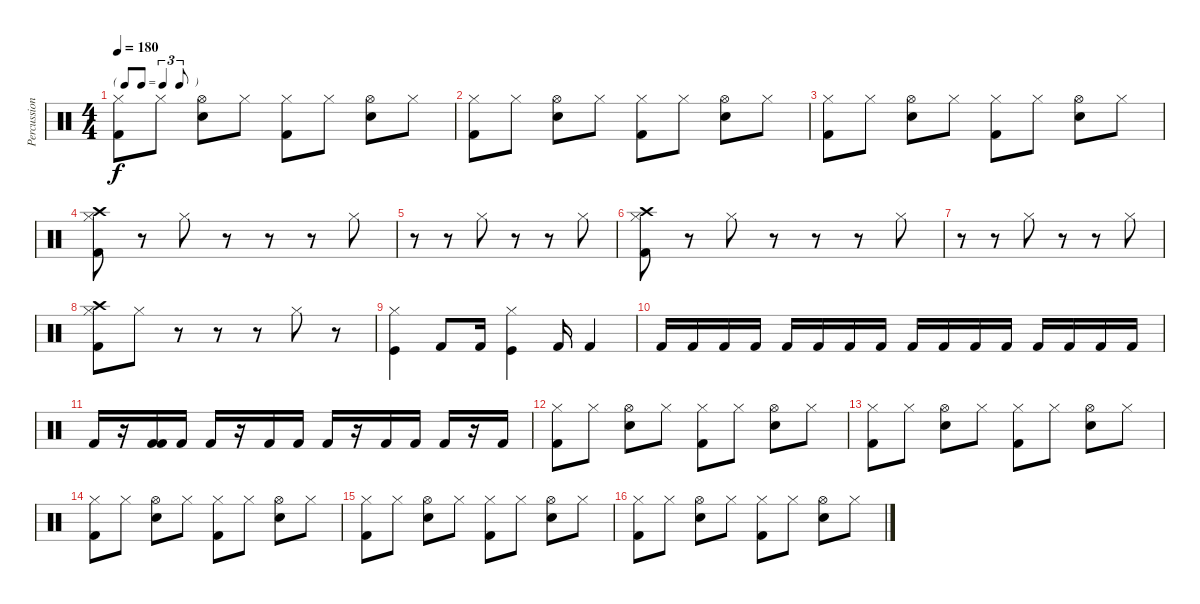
\track ("Percussions" "Percussion") {instrument percussion}
\staff {score}
\articulation defaults
\ts (4 4)
\tf triplet8th
\tempo 180
\clef neutral
\ks c
("Hi-Hat (closed)" "Kick (hit) 2").8{dy f} "Hi-Hat (closed)".8 ("Hi-Hat (open)" "Snare (hit) 2").8 "Hi-Hat (closed)".8 ("Hi-Hat (closed)" "Kick (hit) 2").8 "Hi-Hat (closed)".8 ("Hi-Hat (open)" "Snare (hit) 2").8 "Hi-Hat (closed)".8 |
("Hi-Hat (closed)" "Kick (hit) 2").8 "Hi-Hat (closed)".8 ("Hi-Hat (open)" "Snare (hit) 2").8 "Hi-Hat (closed)".8 ("Hi-Hat (closed)" "Kick (hit) 2").8 "Hi-Hat (closed)".8 ("Hi-Hat (open)" "Snare (hit) 2").8 "Hi-Hat (closed)".8 |
("Hi-Hat (closed)" "Kick (hit) 2").8 "Hi-Hat (closed)".8 ("Hi-Hat (open)" "Snare (hit) 2").8 "Hi-Hat (closed)".8 ("Hi-Hat (closed)" "Kick (hit) 2").8 "Hi-Hat (closed)".8 ("Hi-Hat (open)" "Snare (hit) 2").8 "Hi-Hat (closed)".8 |
("Crash high (hit)" "Kick (hit) 2" "Hi-Hat (closed)").8 r.8 "Hi-Hat (closed)".8 r.8 r.8 r.8 "Hi-Hat (closed)".8 |
r.8 r.8 "Hi-Hat (closed)".8 r.8 r.8 "Hi-Hat (closed)".8 |
("Crash high (hit)" "Kick (hit) 2" "Hi-Hat (closed)").8 r.8 "Hi-Hat (closed)".8 r.8 r.8 r.8 "Hi-Hat (closed)".8 |
r.8 r.8 "Hi-Hat (closed)".8 r.8 r.8 "Hi-Hat (closed)".8 |
("Crash high (hit)" "Kick (hit) 2" "Hi-Hat (closed)").8 "Hi-Hat (closed)".8 r.8 r.8 r.8 "Hi-Hat (closed)".8 r.8 |
("Hi-Hat (closed)" "Kick (hit)").4 "Kick (hit) 2".8 "Kick (hit) 2".16 ("Kick (hit)" "Hi-Hat (closed)").4 "Kick (hit) 2".16 "Kick (hit) 2".4 |
"Kick (hit) 2".16 "Kick (hit) 2".16 "Kick (hit) 2".16 "Kick (hit) 2".16 "Kick (hit) 2".16 "Kick (hit) 2".16 "Kick (hit) 2".16 "Kick (hit) 2".16 "Kick (hit) 2".16 "Kick (hit) 2".16 "Kick (hit) 2".16 "Kick (hit) 2".16 "Kick (hit) 2".16 "Kick (hit) 2".16 "Kick (hit) 2".16 "Kick (hit) 2".16 |
"Kick (hit) 2".16 r.16 ("Kick (hit) 2" "Kick (hit) 2").16 "Kick (hit) 2".16 "Kick (hit) 2".16 r.16 "Kick (hit) 2".16 "Kick (hit) 2".16 "Kick (hit) 2".16 r.16 "Kick (hit) 2".16 "Kick (hit) 2".16 "Kick (hit) 2".16 r.16 "Kick (hit) 2".16 |
("Hi-Hat (closed)" "Kick (hit) 2").8 "Hi-Hat (closed)".8 ("Hi-Hat (open)" "Snare (hit) 2").8 "Hi-Hat (closed)".8 ("Hi-Hat (closed)" "Kick (hit) 2").8 "Hi-Hat (closed)".8 ("Hi-Hat (open)" "Snare (hit) 2").8 "Hi-Hat (closed)".8 |
("Hi-Hat (closed)" "Kick (hit) 2").8 "Hi-Hat (closed)".8 ("Hi-Hat (open)" "Snare (hit) 2").8 "Hi-Hat (closed)".8 ("Hi-Hat (closed)" "Kick (hit) 2").8 "Hi-Hat (closed)".8 ("Hi-Hat (open)" "Snare (hit) 2").8 "Hi-Hat (closed)".8 |
("Hi-Hat (closed)" "Kick (hit) 2").8 "Hi-Hat (closed)".8 ("Hi-Hat (open)" "Snare (hit) 2").8 "Hi-Hat (closed)".8 ("Hi-Hat (closed)" "Kick (hit) 2").8 "Hi-Hat (closed)".8 ("Hi-Hat (open)" "Snare (hit) 2").8 "Hi-Hat (closed)".8 |
("Hi-Hat (closed)" "Kick (hit) 2").8 "Hi-Hat (closed)".8 ("Hi-Hat (open)" "Snare (hit) 2").8 "Hi-Hat (closed)".8 ("Hi-Hat (closed)" "Kick (hit) 2").8 "Hi-Hat (closed)".8 ("Hi-Hat (open)" "Snare (hit) 2").8 "Hi-Hat (closed)".8 |
("Hi-Hat (closed)" "Kick (hit) 2").8 "Hi-Hat (closed)".8 ("Hi-Hat (open)" "Snare (hit) 2").8 "Hi-Hat (closed)".8 ("Hi-Hat (closed)" "Kick (hit) 2").8 "Hi-Hat (closed)".8 ("Hi-Hat (open)" "Snare (hit) 2").8 "Hi-Hat (closed)".8
